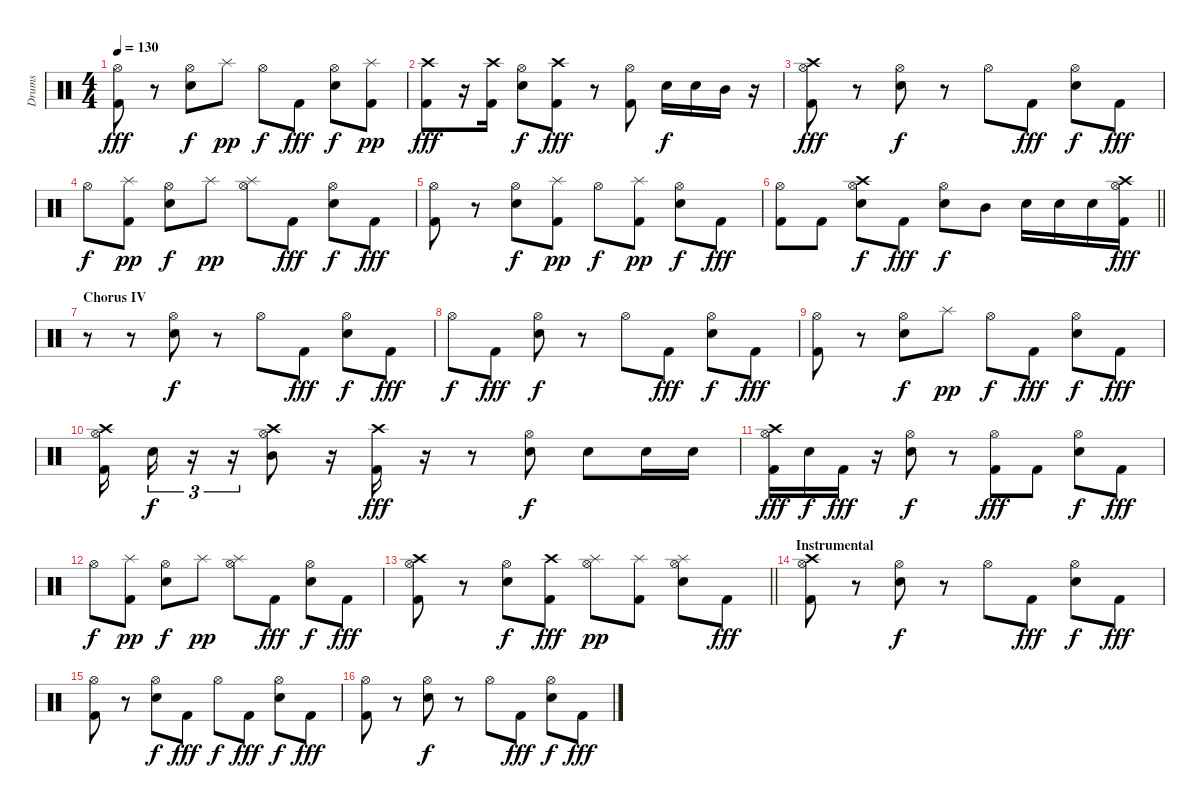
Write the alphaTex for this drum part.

\track ("Drums" "Drums") {instrument percussion}
\staff {score}
\articulation defaults
\ts (4 4)
\tempo 130
\clef neutral
\ks c
("Kick (hit) 2" "Hi-Hat (open)").8{dy fff} r.8 ("Snare (hit) 2" "Hi-Hat (open)").8{dy f} "Splash (hit)".8{dy pp} "Hi-Hat (open)".8{dy f} "Kick (hit) 2".8{dy fff} ("Snare (hit) 2" "Hi-Hat (open)").8{dy f} ("Kick (hit) 2" "Splash (hit)").8{dy pp} |
("Kick (hit) 2" "Crash high (hit)").8{dy fff} r.16 ("Kick (hit) 2" "Crash high (hit)").16 ("Snare (hit) 2" "Hi-Hat (open)").8{dy f} ("Kick (hit) 2" "Crash high (hit)").8{dy fff} r.8 ("Kick (hit) 2" "Hi-Hat (open)").8 "Snare (hit) 2".16{dy f} "Snare (hit) 2".16 "Mid Tom (hit)".16 r.16 |
("Kick (hit) 2" "Crash high (hit)" "Hi-Hat (open)").8{dy fff} r.8 ("Snare (hit) 2" "Hi-Hat (open)").8{dy f} r.8 "Hi-Hat (open)".8 "Kick (hit) 2".8{dy fff} ("Snare (hit) 2" "Hi-Hat (open)").8{dy f} "Kick (hit) 2".8{dy fff} |
"Hi-Hat (open)".8{dy f} ("Kick (hit) 2" "Splash (hit)").8{dy pp} ("Snare (hit) 2" "Hi-Hat (open)").8{dy f} "Splash (hit)".8{dy pp} ("Splash (hit)" "Hi-Hat (open)").8 "Kick (hit) 2".8{dy fff} ("Snare (hit) 2" "Hi-Hat (open)").8{dy f} "Kick (hit) 2".8{dy fff} |
("Kick (hit) 2" "Hi-Hat (open)").8 r.8 ("Snare (hit) 2" "Hi-Hat (open)").8{dy f} ("Kick (hit) 2" "Splash (hit)").8{dy pp} "Hi-Hat (open)".8{dy f} ("Kick (hit) 2" "Splash (hit)").8{dy pp} ("Snare (hit) 2" "Hi-Hat (open)").8{dy f} "Kick (hit) 2".8{dy fff} |
\barLineRight lightlight
("Kick (hit) 2" "Hi-Hat (open)").8 "Kick (hit) 2".8 ("Snare (hit) 2" "Crash high (hit)" "Hi-Hat (open)").8{dy f} "Kick (hit) 2".8{dy fff} ("Snare (hit) 2" "Hi-Hat (open)").8{dy f} "Mid Tom (hit)".8 "Snare (hit) 2".16 "Snare (hit) 2".16 "Snare (hit) 2".16 ("Kick (hit) 2" "Hi-Hat (open)" "Crash high (hit)").16{dy fff} |
\section ("" "Chorus IV")
r.8 r.8 ("Snare (hit) 2" "Hi-Hat (open)").8{dy f} r.8 "Hi-Hat (open)".8 "Kick (hit) 2".8{dy fff} ("Snare (hit) 2" "Hi-Hat (open)").8{dy f} "Kick (hit) 2".8{dy fff} |
"Hi-Hat (open)".8{dy f} "Kick (hit) 2".8{dy fff} ("Snare (hit) 2" "Hi-Hat (open)").8{dy f} r.8 "Hi-Hat (open)".8 "Kick (hit) 2".8{dy fff} ("Snare (hit) 2" "Hi-Hat (open)").8{dy f} "Kick (hit) 2".8{dy fff} |
("Kick (hit) 2" "Hi-Hat (open)").8 r.8 ("Snare (hit) 2" "Hi-Hat (open)").8{dy f} "Splash (hit)".8{dy pp} "Hi-Hat (open)".8{dy f} "Kick (hit) 2".8{dy fff} ("Snare (hit) 2" "Hi-Hat (open)").8{dy f} "Kick (hit) 2".8{dy fff} |
("Kick (hit) 2" "Crash high (hit)" "Hi-Hat (open)").16 "Snare (hit) 2".16{tu (3 2) dy f} r.16{tu (3 2)} r.16{tu (3 2)} ("Mid Tom (hit)" "Crash high (hit)" "Hi-Hat (open)").8 r.16 ("Kick (hit) 2" "Crash high (hit)").16{dy fff} r.16 r.8 ("Snare (hit) 2" "Hi-Hat (open)").8{dy f} "Snare (hit) 2".8 "Snare (hit) 2".16 "Snare (hit) 2".16 |
("Kick (hit) 2" "Crash high (hit)" "Hi-Hat (open)").16{dy fff} "Snare (hit) 2".16{dy f} "Kick (hit) 2".16{dy fff} r.16 ("Snare (hit) 2" "Hi-Hat (open)").8{dy f} r.8 ("Kick (hit) 2" "Hi-Hat (open)").8{dy fff} "Kick (hit) 2".8 ("Snare (hit) 2" "Hi-Hat (open)").8{dy f} "Kick (hit) 2".8{dy fff} |
"Hi-Hat (open)".8{dy f} ("Kick (hit) 2" "Splash (hit)").8{dy pp} ("Snare (hit) 2" "Hi-Hat (open)").8{dy f} "Splash (hit)".8{dy pp} ("Splash (hit)" "Hi-Hat (open)").8 "Kick (hit) 2".8{dy fff} ("Snare (hit) 2" "Hi-Hat (open)").8{dy f} "Kick (hit) 2".8{dy fff} |
\barLineRight lightlight
("Kick (hit) 2" "Crash high (hit)" "Hi-Hat (open)").8 r.8 ("Snare (hit) 2" "Hi-Hat (open)").8{dy f} ("Kick (hit) 2" "Crash high (hit)").8{dy fff} ("Splash (hit)" "Hi-Hat (open)").8{dy pp} ("Kick (hit) 2" "Splash (hit)").8 ("Snare (hit) 2" "Splash (hit)" "Hi-Hat (open)").8 "Kick (hit) 2".8{dy fff} |
\section ("" "Instrumental")
("Kick (hit) 2" "Crash high (hit)" "Hi-Hat (open)").8 r.8 ("Snare (hit) 2" "Hi-Hat (open)").8{dy f} r.8 "Hi-Hat (open)".8 "Kick (hit) 2".8{dy fff} ("Snare (hit) 2" "Hi-Hat (open)").8{dy f} "Kick (hit) 2".8{dy fff} |
("Kick (hit) 2" "Hi-Hat (open)").8 r.8 ("Snare (hit) 2" "Hi-Hat (open)").8{dy f} "Kick (hit) 2".8{dy fff} "Hi-Hat (open)".8{dy f} "Kick (hit) 2".8{dy fff} ("Snare (hit) 2" "Hi-Hat (open)").8{dy f} "Kick (hit) 2".8{dy fff} |
("Kick (hit) 2" "Hi-Hat (open)").8 r.8 ("Snare (hit) 2" "Hi-Hat (open)").8{dy f} r.8 "Hi-Hat (open)".8 "Kick (hit) 2".8{dy fff} ("Snare (hit) 2" "Hi-Hat (open)").8{dy f} "Kick (hit) 2".8{dy fff}
